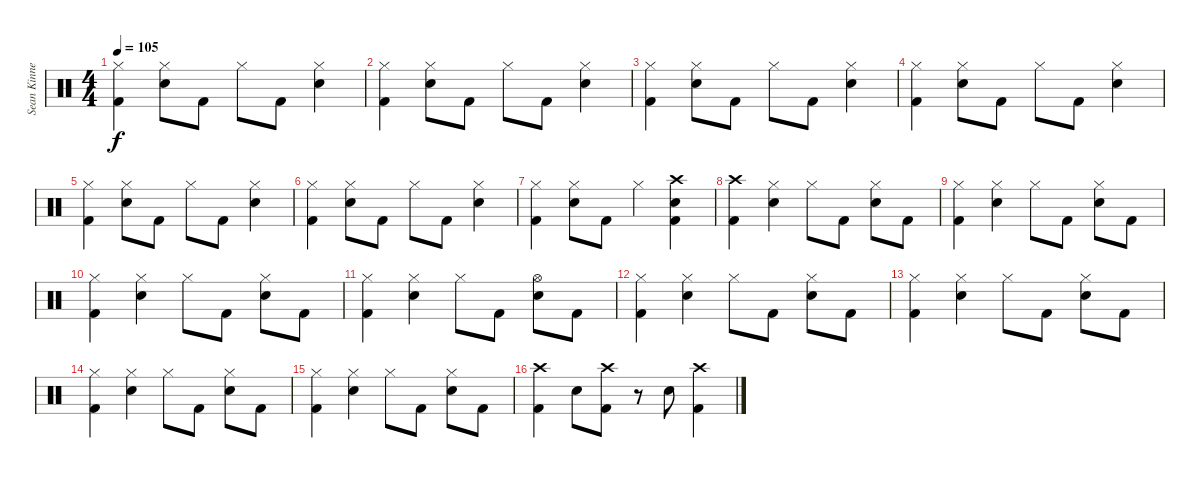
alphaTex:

\track ("Sean Kinney- Drums" "Sean Kinne") {instrument percussion}
\staff {score}
\articulation defaults
\ts (4 4)
\tempo 105
\clef neutral
\ks c
("Hi-Hat (closed)" "Kick (hit) 2").4{dy f} ("Hi-Hat (closed)" "Electric Snare (hit)").8 "Kick (hit) 2".8 "Hi-Hat (closed)".8 "Kick (hit) 2".8 ("Hi-Hat (closed)" "Electric Snare (hit)").4 |
("Hi-Hat (closed)" "Kick (hit) 2").4 ("Hi-Hat (closed)" "Electric Snare (hit)").8 "Kick (hit) 2".8 "Hi-Hat (closed)".8 "Kick (hit) 2".8 ("Hi-Hat (closed)" "Electric Snare (hit)").4 |
("Hi-Hat (closed)" "Kick (hit) 2").4 ("Hi-Hat (closed)" "Electric Snare (hit)").8 "Kick (hit) 2".8 "Hi-Hat (closed)".8 "Kick (hit) 2".8 ("Hi-Hat (closed)" "Electric Snare (hit)").4 |
("Hi-Hat (closed)" "Kick (hit) 2").4 ("Hi-Hat (closed)" "Electric Snare (hit)").8 "Kick (hit) 2".8 "Hi-Hat (closed)".8 "Kick (hit) 2".8 ("Hi-Hat (closed)" "Electric Snare (hit)").4 |
("Hi-Hat (closed)" "Kick (hit) 2").4 ("Hi-Hat (closed)" "Electric Snare (hit)").8 "Kick (hit) 2".8 "Hi-Hat (closed)".8 "Kick (hit) 2".8 ("Hi-Hat (closed)" "Electric Snare (hit)").4 |
("Hi-Hat (closed)" "Kick (hit) 2").4 ("Hi-Hat (closed)" "Electric Snare (hit)").8 "Kick (hit) 2".8 "Hi-Hat (closed)".8 "Kick (hit) 2".8 ("Hi-Hat (closed)" "Electric Snare (hit)").4 |
("Hi-Hat (closed)" "Kick (hit) 2").4 ("Hi-Hat (closed)" "Electric Snare (hit)").8 "Kick (hit) 2".8 "Hi-Hat (closed)".4 ("Crash high (hit)" "Electric Snare (hit)" "Kick (hit) 2").4 |
("Crash high (hit)" "Kick (hit) 2").4 ("Hi-Hat (closed)" "Electric Snare (hit)").4 "Hi-Hat (closed)".8 "Kick (hit) 2".8 ("Hi-Hat (closed)" "Electric Snare (hit)").8 "Kick (hit) 2".8 |
("Hi-Hat (closed)" "Kick (hit) 2").4 ("Hi-Hat (closed)" "Electric Snare (hit)").4 "Hi-Hat (closed)".8 "Kick (hit) 2".8 ("Hi-Hat (closed)" "Electric Snare (hit)").8 "Kick (hit) 2".8 |
("Hi-Hat (closed)" "Kick (hit) 2").4 ("Hi-Hat (closed)" "Electric Snare (hit)").4 "Hi-Hat (closed)".8 "Kick (hit) 2".8 ("Hi-Hat (closed)" "Electric Snare (hit)").8 "Kick (hit) 2".8 |
("Hi-Hat (closed)" "Kick (hit) 2").4 ("Hi-Hat (closed)" "Electric Snare (hit)").4 "Hi-Hat (closed)".8 "Kick (hit) 2".8 ("Hi-Hat (open)" "Electric Snare (hit)").8 "Kick (hit) 2".8 |
("Hi-Hat (closed)" "Kick (hit) 2").4 ("Hi-Hat (closed)" "Electric Snare (hit)").4 "Hi-Hat (closed)".8 "Kick (hit) 2".8 ("Hi-Hat (closed)" "Electric Snare (hit)").8 "Kick (hit) 2".8 |
("Hi-Hat (closed)" "Kick (hit) 2").4 ("Hi-Hat (closed)" "Electric Snare (hit)").4 "Hi-Hat (closed)".8 "Kick (hit) 2".8 ("Hi-Hat (closed)" "Electric Snare (hit)").8 "Kick (hit) 2".8 |
("Hi-Hat (closed)" "Kick (hit) 2").4 ("Hi-Hat (closed)" "Electric Snare (hit)").4 "Hi-Hat (closed)".8 "Kick (hit) 2".8 ("Hi-Hat (closed)" "Electric Snare (hit)").8 "Kick (hit) 2".8 |
("Hi-Hat (closed)" "Kick (hit) 2").4 ("Hi-Hat (closed)" "Electric Snare (hit)").4 "Hi-Hat (closed)".8 "Kick (hit) 2".8 ("Hi-Hat (closed)" "Electric Snare (hit)").8 "Kick (hit) 2".8 |
("Crash high (hit)" "Kick (hit) 2").4 "Electric Snare (hit)".8 ("Crash high (hit)" "Kick (hit) 2").8 r.8 "Electric Snare (hit)".8 ("Crash high (hit)" "Kick (hit) 2").4
